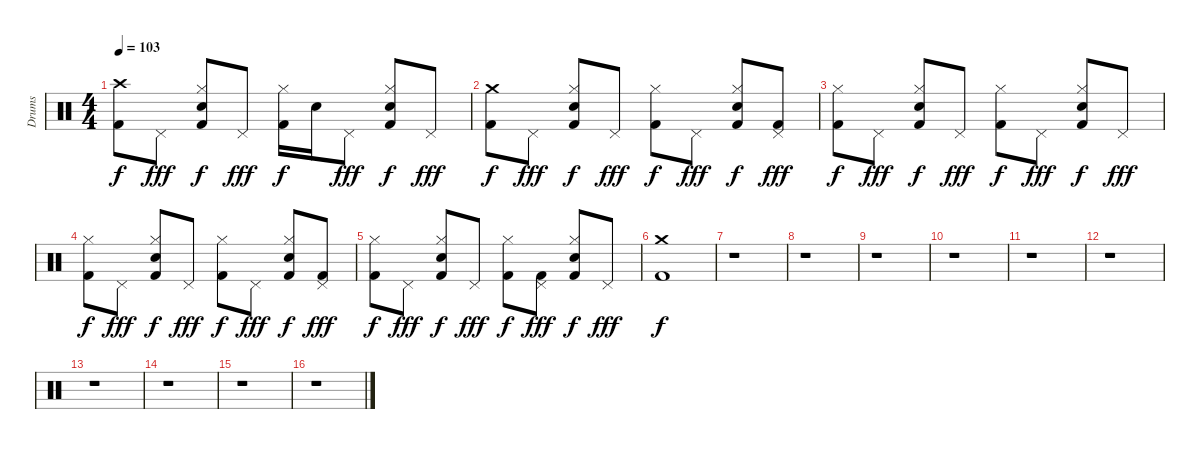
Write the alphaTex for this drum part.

\track ("Drums" "Drums") {instrument percussion}
\staff {score}
\articulation defaults
\ts (4 4)
\tempo 103
\clef neutral
\ks c
("Kick (hit) 2" "Crash high (hit)").8{dy f} "Pedal Hi-Hat (hit)".8{dy fff} ("Kick (hit) 2" "Hi-Hat (closed)" "Snare (hit) 2").8{dy f} "Pedal Hi-Hat (hit)".8{dy fff} ("Kick (hit) 2" "Hi-Hat (closed)").16{dy f} "Snare (hit) 2".16 "Pedal Hi-Hat (hit)".8{dy fff} ("Kick (hit) 2" "Hi-Hat (closed)" "Snare (hit) 2").8{dy f} "Pedal Hi-Hat (hit)".8{dy fff} |
("Kick (hit) 2" "Crash medium (hit)").8{dy f} "Pedal Hi-Hat (hit)".8{dy fff} ("Kick (hit) 2" "Hi-Hat (closed)" "Snare (hit) 2").8{dy f} "Pedal Hi-Hat (hit)".8{dy fff} ("Kick (hit) 2" "Hi-Hat (closed)").8{dy f} "Pedal Hi-Hat (hit)".8{dy fff} ("Kick (hit) 2" "Hi-Hat (closed)" "Snare (hit) 2").8{dy f} ("Kick (hit) 2" "Pedal Hi-Hat (hit)").8{dy fff} |
("Kick (hit) 2" "Hi-Hat (closed)").8{dy f} "Pedal Hi-Hat (hit)".8{dy fff} ("Kick (hit) 2" "Hi-Hat (closed)" "Snare (hit) 2").8{dy f} "Pedal Hi-Hat (hit)".8{dy fff} ("Kick (hit) 2" "Hi-Hat (closed)").8{dy f} "Pedal Hi-Hat (hit)".8{dy fff} ("Kick (hit) 2" "Hi-Hat (closed)" "Snare (hit) 2").8{dy f} "Pedal Hi-Hat (hit)".8{dy fff} |
("Kick (hit) 2" "Hi-Hat (closed)").8{dy f} "Pedal Hi-Hat (hit)".8{dy fff} ("Kick (hit) 2" "Hi-Hat (closed)" "Snare (hit) 2").8{dy f} "Pedal Hi-Hat (hit)".8{dy fff} ("Kick (hit) 2" "Hi-Hat (closed)").8{dy f} "Pedal Hi-Hat (hit)".8{dy fff} ("Kick (hit) 2" "Hi-Hat (closed)" "Snare (hit) 2").8{dy f} ("Kick (hit) 2" "Pedal Hi-Hat (hit)").8{dy fff} |
("Kick (hit) 2" "Hi-Hat (closed)").8{dy f} "Pedal Hi-Hat (hit)".8{dy fff} ("Kick (hit) 2" "Hi-Hat (closed)" "Snare (hit) 2").8{dy f} "Pedal Hi-Hat (hit)".8{dy fff} ("Kick (hit) 2" "Hi-Hat (closed)").8{dy f} ("Kick (hit) 2" "Pedal Hi-Hat (hit)").8{dy fff} ("Kick (hit) 2" "Hi-Hat (closed)" "Snare (hit) 2").8{dy f} "Pedal Hi-Hat (hit)".8{dy fff} |
("Kick (hit) 2" "Crash medium (hit)").1{dy f} |
r.1 |
r.1 |
r.1 |
r.1 |
r.1 |
r.1 |
r.1 |
r.1 |
r.1 |
r.1
